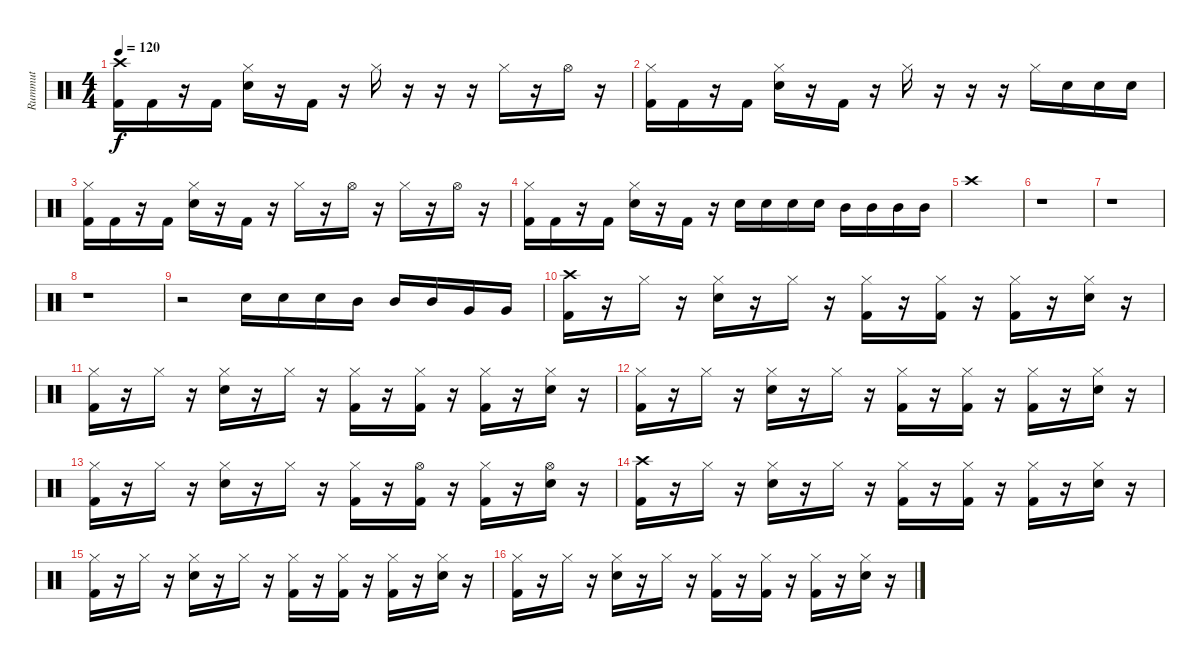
\track ("Rummut" "Rummut") {instrument percussion}
\staff {score}
\articulation defaults
\ts (4 4)
\tempo 120
\clef neutral
\ks c
("Crash high (hit)" "Kick (hit) 2").16{dy f} "Kick (hit) 2".16 r.16 "Kick (hit) 2".16 ("Hi-Hat (closed)" "Snare (hit) 2").16 r.16 "Kick (hit) 2".16 r.16 "Hi-Hat (closed)".16 r.16 r.16 r.16 "Hi-Hat (closed)".16 r.16 "Hi-Hat (open)".16 r.16 |
("Hi-Hat (closed)" "Kick (hit) 2").16 "Kick (hit) 2".16 r.16 "Kick (hit) 2".16 ("Hi-Hat (closed)" "Snare (hit) 2").16 r.16 "Kick (hit) 2".16 r.16 "Hi-Hat (closed)".16 r.16 r.16 r.16 "Hi-Hat (closed)".16 "Snare (hit) 2".16 "Snare (hit) 2".16 "Snare (hit) 2".16 |
("Hi-Hat (closed)" "Kick (hit) 2").16 "Kick (hit) 2".16 r.16 "Kick (hit) 2".16 ("Hi-Hat (closed)" "Snare (hit) 2").16 r.16 "Kick (hit) 2".16 r.16 "Hi-Hat (closed)".16 r.16 "Hi-Hat (open)".16 r.16 "Hi-Hat (closed)".16 r.16 "Hi-Hat (open)".16 r.16 |
("Hi-Hat (closed)" "Kick (hit) 2").16 "Kick (hit) 2".16 r.16 "Kick (hit) 2".16 ("Hi-Hat (closed)" "Snare (hit) 2").16 r.16 "Kick (hit) 2".16 r.16 "Snare (hit) 2".16 "Snare (hit) 2".16 "Snare (hit) 2".16 "Snare (hit) 2".16 "Mid Tom (hit)".16 "Mid Tom (hit)".16 "Mid Tom (hit)".16 "Mid Tom (hit)".16 |
"Crash high (hit)".1 |
r.1 |
r.1 |
r.1 |
r.2 "Snare (hit) 2".16 "Snare (hit) 2".16 "Snare (hit) 2".16 "Mid Tom (hit)".16 "Mid Tom (hit)".16 "Mid Tom (hit)".16 "Very Low Tom (hit)".16 "Very Low Tom (hit)".16 |
("Crash high (hit)" "Kick (hit) 2").16 r.16 "Hi-Hat (closed)".16 r.16 ("Hi-Hat (closed)" "Snare (hit) 2").16 r.16 "Hi-Hat (closed)".16 r.16 ("Hi-Hat (closed)" "Kick (hit) 2").16 r.16 ("Hi-Hat (closed)" "Kick (hit) 2").16 r.16 ("Hi-Hat (closed)" "Kick (hit) 2").16 r.16 ("Hi-Hat (closed)" "Snare (hit) 2").16 r.16 |
("Hi-Hat (closed)" "Kick (hit) 2").16 r.16 "Hi-Hat (closed)".16 r.16 ("Hi-Hat (closed)" "Snare (hit) 2").16 r.16 "Hi-Hat (closed)".16 r.16 ("Hi-Hat (closed)" "Kick (hit) 2").16 r.16 ("Hi-Hat (closed)" "Kick (hit) 2").16 r.16 ("Hi-Hat (closed)" "Kick (hit) 2").16 r.16 ("Hi-Hat (closed)" "Snare (hit) 2").16 r.16 |
("Hi-Hat (closed)" "Kick (hit) 2").16 r.16 "Hi-Hat (closed)".16 r.16 ("Hi-Hat (closed)" "Snare (hit) 2").16 r.16 "Hi-Hat (closed)".16 r.16 ("Hi-Hat (closed)" "Kick (hit) 2").16 r.16 ("Hi-Hat (closed)" "Kick (hit) 2").16 r.16 ("Hi-Hat (closed)" "Kick (hit) 2").16 r.16 ("Hi-Hat (closed)" "Snare (hit) 2").16 r.16 |
("Hi-Hat (closed)" "Kick (hit) 2").16 r.16 "Hi-Hat (closed)".16 r.16 ("Hi-Hat (closed)" "Snare (hit) 2").16 r.16 "Hi-Hat (closed)".16 r.16 ("Hi-Hat (closed)" "Kick (hit) 2").16 r.16 ("Hi-Hat (open)" "Kick (hit) 2").16 r.16 ("Hi-Hat (closed)" "Kick (hit) 2").16 r.16 ("Hi-Hat (open)" "Snare (hit) 2").16 r.16 |
("Crash high (hit)" "Kick (hit) 2").16 r.16 "Hi-Hat (closed)".16 r.16 ("Hi-Hat (closed)" "Snare (hit) 2").16 r.16 "Hi-Hat (closed)".16 r.16 ("Hi-Hat (closed)" "Kick (hit) 2").16 r.16 ("Hi-Hat (closed)" "Kick (hit) 2").16 r.16 ("Hi-Hat (closed)" "Kick (hit) 2").16 r.16 ("Hi-Hat (closed)" "Snare (hit) 2").16 r.16 |
("Hi-Hat (closed)" "Kick (hit) 2").16 r.16 "Hi-Hat (closed)".16 r.16 ("Hi-Hat (closed)" "Snare (hit) 2").16 r.16 "Hi-Hat (closed)".16 r.16 ("Hi-Hat (closed)" "Kick (hit) 2").16 r.16 ("Hi-Hat (closed)" "Kick (hit) 2").16 r.16 ("Hi-Hat (closed)" "Kick (hit) 2").16 r.16 ("Hi-Hat (closed)" "Snare (hit) 2").16 r.16 |
("Hi-Hat (closed)" "Kick (hit) 2").16 r.16 "Hi-Hat (closed)".16 r.16 ("Hi-Hat (closed)" "Snare (hit) 2").16 r.16 "Hi-Hat (closed)".16 r.16 ("Hi-Hat (closed)" "Kick (hit) 2").16 r.16 ("Hi-Hat (closed)" "Kick (hit) 2").16 r.16 ("Hi-Hat (closed)" "Kick (hit) 2").16 r.16 ("Hi-Hat (closed)" "Snare (hit) 2").16 r.16
